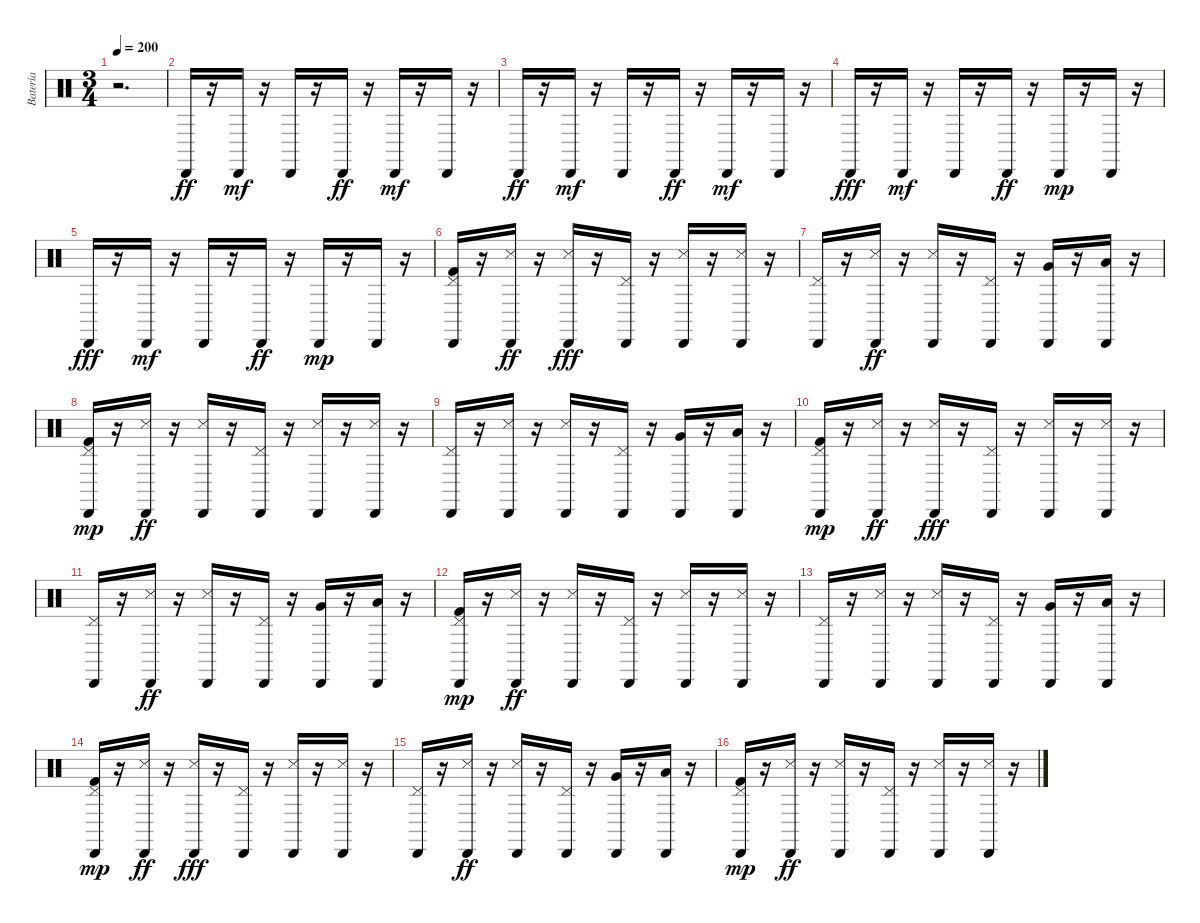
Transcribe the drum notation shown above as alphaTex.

\track ("Batería" "Batería") {instrument percussion}
\staff {score}
\articulation defaults
\ts (3 4)
\tempo 200
\clef neutral
\ks c
r.2{d dy ff} |
"Cabasa (hit)".16 r.16 "Cabasa (hit)".16{dy mf} r.16 "Cabasa (hit)".16 r.16 "Cabasa (hit)".16{dy ff} r.16 "Cabasa (hit)".16{dy mf} r.16 "Cabasa (hit)".16 r.16 |
"Cabasa (hit)".16{dy ff} r.16 "Cabasa (hit)".16{dy mf} r.16 "Cabasa (hit)".16 r.16 "Cabasa (hit)".16{dy ff} r.16 "Cabasa (hit)".16{dy mf} r.16 "Cabasa (hit)".16 r.16 |
"Cabasa (hit)".16{dy fff} r.16 "Cabasa (hit)".16{dy mf} r.16 "Cabasa (hit)".16 r.16 "Cabasa (hit)".16{dy ff} r.16 "Cabasa (hit)".16{dy mp} r.16 "Cabasa (hit)".16 r.16 |
"Cabasa (hit)".16{dy fff} r.16 "Cabasa (hit)".16{dy mf} r.16 "Cabasa (hit)".16 r.16 "Cabasa (hit)".16{dy ff} r.16 "Cabasa (hit)".16{dy mp} r.16 "Cabasa (hit)".16 r.16 |
("Cabasa (hit)" "Pedal Hi-Hat (hit)" "Kick (hit) 2").16 r.16 ("Cabasa (hit)" "Snare (side stick) 3").16{dy ff} r.16 ("Cabasa (hit)" "Snare (side stick) 3").16{dy fff} r.16 ("Cabasa (hit)" "Pedal Hi-Hat (hit)").16 r.16 ("Cabasa (hit)" "Snare (side stick) 3").16 r.16 ("Cabasa (hit)" "Snare (side stick) 3").16 r.16 |
("Cabasa (hit)" "Pedal Hi-Hat (hit)").16 r.16 ("Cabasa (hit)" "Snare (side stick) 3").16{dy ff} r.16 ("Cabasa (hit)" "Snare (side stick) 3").16 r.16 ("Cabasa (hit)" "Pedal Hi-Hat (hit)").16 r.16 ("Cabasa (hit)" "Very Low Tom (hit)").16 r.16 ("Cabasa (hit)" "Low Floor Tom (hit)").16 r.16 |
("Cabasa (hit)" "Pedal Hi-Hat (hit)" "Kick (hit) 2").16{dy mp} r.16 ("Cabasa (hit)" "Snare (side stick) 3").16{dy ff} r.16 ("Cabasa (hit)" "Snare (side stick) 3").16 r.16 ("Cabasa (hit)" "Pedal Hi-Hat (hit)").16 r.16 ("Cabasa (hit)" "Snare (side stick) 3").16 r.16 ("Cabasa (hit)" "Snare (side stick) 3").16 r.16 |
("Cabasa (hit)" "Pedal Hi-Hat (hit)").16 r.16 ("Cabasa (hit)" "Snare (side stick) 3").16 r.16 ("Cabasa (hit)" "Snare (side stick) 3").16 r.16 ("Cabasa (hit)" "Pedal Hi-Hat (hit)").16 r.16 ("Cabasa (hit)" "Very Low Tom (hit)").16 r.16 ("Cabasa (hit)" "Low Floor Tom (hit)").16 r.16 |
("Cabasa (hit)" "Pedal Hi-Hat (hit)" "Kick (hit) 2").16{dy mp} r.16 ("Cabasa (hit)" "Snare (side stick) 3").16{dy ff} r.16 ("Cabasa (hit)" "Snare (side stick) 3").16{dy fff} r.16 ("Cabasa (hit)" "Pedal Hi-Hat (hit)").16 r.16 ("Cabasa (hit)" "Snare (side stick) 3").16 r.16 ("Cabasa (hit)" "Snare (side stick) 3").16 r.16 |
("Cabasa (hit)" "Pedal Hi-Hat (hit)").16 r.16 ("Cabasa (hit)" "Snare (side stick) 3").16{dy ff} r.16 ("Cabasa (hit)" "Snare (side stick) 3").16 r.16 ("Cabasa (hit)" "Pedal Hi-Hat (hit)").16 r.16 ("Cabasa (hit)" "Very Low Tom (hit)").16 r.16 ("Cabasa (hit)" "Low Floor Tom (hit)").16 r.16 |
("Cabasa (hit)" "Pedal Hi-Hat (hit)" "Kick (hit) 2").16{dy mp} r.16 ("Cabasa (hit)" "Snare (side stick) 3").16{dy ff} r.16 ("Cabasa (hit)" "Snare (side stick) 3").16 r.16 ("Cabasa (hit)" "Pedal Hi-Hat (hit)").16 r.16 ("Cabasa (hit)" "Snare (side stick) 3").16 r.16 ("Cabasa (hit)" "Snare (side stick) 3").16 r.16 |
("Cabasa (hit)" "Pedal Hi-Hat (hit)").16 r.16 ("Cabasa (hit)" "Snare (side stick) 3").16 r.16 ("Cabasa (hit)" "Snare (side stick) 3").16 r.16 ("Cabasa (hit)" "Pedal Hi-Hat (hit)").16 r.16 ("Cabasa (hit)" "Very Low Tom (hit)").16 r.16 ("Cabasa (hit)" "Low Floor Tom (hit)").16 r.16 |
("Cabasa (hit)" "Pedal Hi-Hat (hit)" "Kick (hit) 2").16{dy mp} r.16 ("Cabasa (hit)" "Snare (side stick) 3").16{dy ff} r.16 ("Cabasa (hit)" "Snare (side stick) 3").16{dy fff} r.16 ("Cabasa (hit)" "Pedal Hi-Hat (hit)").16 r.16 ("Cabasa (hit)" "Snare (side stick) 3").16 r.16 ("Cabasa (hit)" "Snare (side stick) 3").16 r.16 |
("Cabasa (hit)" "Pedal Hi-Hat (hit)").16 r.16 ("Cabasa (hit)" "Snare (side stick) 3").16{dy ff} r.16 ("Cabasa (hit)" "Snare (side stick) 3").16 r.16 ("Cabasa (hit)" "Pedal Hi-Hat (hit)").16 r.16 ("Cabasa (hit)" "Very Low Tom (hit)").16 r.16 ("Cabasa (hit)" "Low Floor Tom (hit)").16 r.16 |
("Cabasa (hit)" "Pedal Hi-Hat (hit)" "Kick (hit) 2").16{dy mp} r.16 ("Cabasa (hit)" "Snare (side stick) 3").16{dy ff} r.16 ("Cabasa (hit)" "Snare (side stick) 3").16 r.16 ("Cabasa (hit)" "Pedal Hi-Hat (hit)").16 r.16 ("Cabasa (hit)" "Snare (side stick) 3").16 r.16 ("Cabasa (hit)" "Snare (side stick) 3").16 r.16
